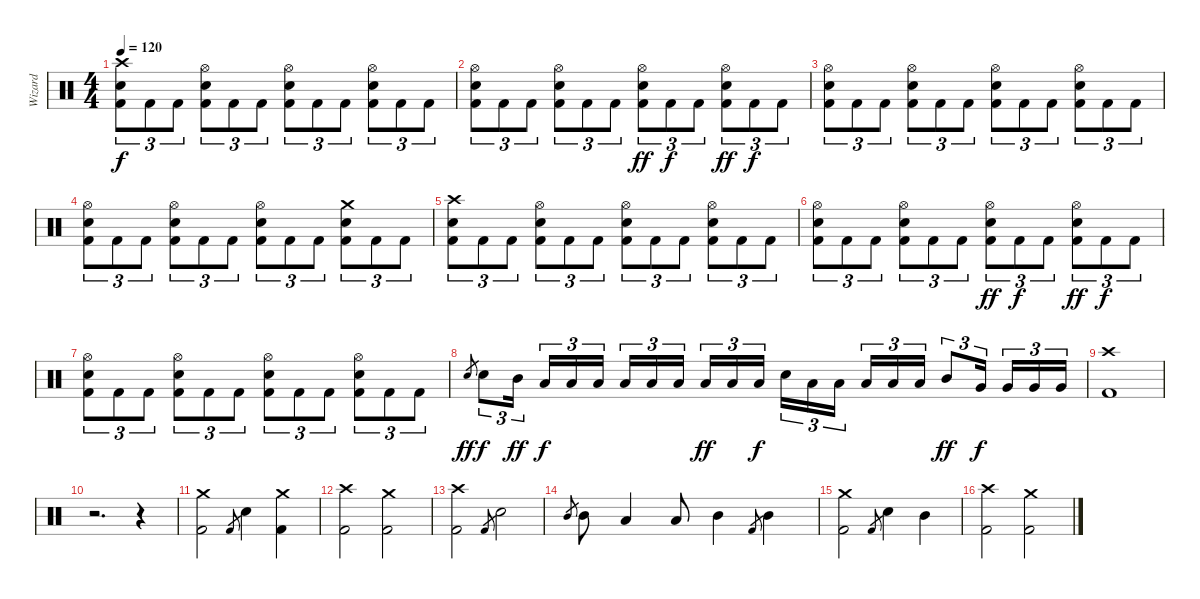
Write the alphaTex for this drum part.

\track ("Wizard" "Wizard") {instrument percussion}
\staff {score}
\articulation defaults
\ts (4 4)
\tempo 120
\clef neutral
\ks c
("Crash high (hit)" "Snare (hit) 2" "Kick (hit) 2").8{tu (3 2) dy f} "Kick (hit) 2".8{tu (3 2)} "Kick (hit) 2".8{tu (3 2)} ("Hi-Hat (open)" "Snare (hit) 2" "Kick (hit) 2").8{tu (3 2)} "Kick (hit) 2".8{tu (3 2)} "Kick (hit) 2".8{tu (3 2)} ("Hi-Hat (open)" "Snare (hit) 2" "Kick (hit) 2").8{tu (3 2)} "Kick (hit) 2".8{tu (3 2)} "Kick (hit) 2".8{tu (3 2)} ("Hi-Hat (open)" "Snare (hit) 2" "Kick (hit) 2").8{tu (3 2)} "Kick (hit) 2".8{tu (3 2)} "Kick (hit) 2".8{tu (3 2)} |
("Hi-Hat (open)" "Snare (hit) 2" "Kick (hit) 2").8{tu (3 2)} "Kick (hit) 2".8{tu (3 2)} "Kick (hit) 2".8{tu (3 2)} ("Hi-Hat (open)" "Snare (hit) 2" "Kick (hit) 2").8{tu (3 2)} "Kick (hit) 2".8{tu (3 2)} "Kick (hit) 2".8{tu (3 2)} ("Hi-Hat (open)" "Snare (hit) 2" "Kick (hit) 2").8{tu (3 2) dy ff} "Kick (hit) 2".8{tu (3 2) dy f} "Kick (hit) 2".8{tu (3 2)} ("Hi-Hat (open)" "Snare (hit) 2" "Kick (hit) 2").8{tu (3 2) dy ff} "Kick (hit) 2".8{tu (3 2) dy f} "Kick (hit) 2".8{tu (3 2)} |
("Hi-Hat (open)" "Snare (hit) 2" "Kick (hit) 2").8{tu (3 2)} "Kick (hit) 2".8{tu (3 2)} "Kick (hit) 2".8{tu (3 2)} ("Hi-Hat (open)" "Snare (hit) 2" "Kick (hit) 2").8{tu (3 2)} "Kick (hit) 2".8{tu (3 2)} "Kick (hit) 2".8{tu (3 2)} ("Hi-Hat (open)" "Snare (hit) 2" "Kick (hit) 2").8{tu (3 2)} "Kick (hit) 2".8{tu (3 2)} "Kick (hit) 2".8{tu (3 2)} ("Hi-Hat (open)" "Snare (hit) 2" "Kick (hit) 2").8{tu (3 2)} "Kick (hit) 2".8{tu (3 2)} "Kick (hit) 2".8{tu (3 2)} |
("Hi-Hat (open)" "Snare (hit) 2" "Kick (hit) 2").8{tu (3 2)} "Kick (hit) 2".8{tu (3 2)} "Kick (hit) 2".8{tu (3 2)} ("Hi-Hat (open)" "Snare (hit) 2" "Kick (hit) 2").8{tu (3 2)} "Kick (hit) 2".8{tu (3 2)} "Kick (hit) 2".8{tu (3 2)} ("Hi-Hat (open)" "Snare (hit) 2" "Kick (hit) 2").8{tu (3 2)} "Kick (hit) 2".8{tu (3 2)} "Kick (hit) 2".8{tu (3 2)} ("Crash medium (hit)" "Snare (hit) 2" "Kick (hit) 2").8{tu (3 2)} "Kick (hit) 2".8{tu (3 2)} "Kick (hit) 2".8{tu (3 2)} |
("Crash high (hit)" "Snare (hit) 2" "Kick (hit) 2").8{tu (3 2)} "Kick (hit) 2".8{tu (3 2)} "Kick (hit) 2".8{tu (3 2)} ("Hi-Hat (open)" "Snare (hit) 2" "Kick (hit) 2").8{tu (3 2)} "Kick (hit) 2".8{tu (3 2)} "Kick (hit) 2".8{tu (3 2)} ("Hi-Hat (open)" "Snare (hit) 2" "Kick (hit) 2").8{tu (3 2)} "Kick (hit) 2".8{tu (3 2)} "Kick (hit) 2".8{tu (3 2)} ("Hi-Hat (open)" "Snare (hit) 2" "Kick (hit) 2").8{tu (3 2)} "Kick (hit) 2".8{tu (3 2)} "Kick (hit) 2".8{tu (3 2)} |
("Hi-Hat (open)" "Snare (hit) 2" "Kick (hit) 2").8{tu (3 2)} "Kick (hit) 2".8{tu (3 2)} "Kick (hit) 2".8{tu (3 2)} ("Hi-Hat (open)" "Snare (hit) 2" "Kick (hit) 2").8{tu (3 2)} "Kick (hit) 2".8{tu (3 2)} "Kick (hit) 2".8{tu (3 2)} ("Hi-Hat (open)" "Snare (hit) 2" "Kick (hit) 2").8{tu (3 2) dy ff} "Kick (hit) 2".8{tu (3 2) dy f} "Kick (hit) 2".8{tu (3 2)} ("Hi-Hat (open)" "Snare (hit) 2" "Kick (hit) 2").8{tu (3 2) dy ff} "Kick (hit) 2".8{tu (3 2) dy f} "Kick (hit) 2".8{tu (3 2)} |
("Hi-Hat (open)" "Snare (hit) 2" "Kick (hit) 2").8{tu (3 2)} "Kick (hit) 2".8{tu (3 2)} "Kick (hit) 2".8{tu (3 2)} ("Hi-Hat (open)" "Snare (hit) 2" "Kick (hit) 2").8{tu (3 2)} "Kick (hit) 2".8{tu (3 2)} "Kick (hit) 2".8{tu (3 2)} ("Hi-Hat (open)" "Snare (hit) 2" "Kick (hit) 2").8{tu (3 2)} "Kick (hit) 2".8{tu (3 2)} "Kick (hit) 2".8{tu (3 2)} ("Hi-Hat (open)" "Snare (hit) 2" "Kick (hit) 2").8{tu (3 2)} "Kick (hit) 2".8{tu (3 2)} "Kick (hit) 2".8{tu (3 2)} |
"Snare (hit) 2".8{gr dy ff} "Snare (hit) 2".8{tu (3 2) dy f} "Mid Tom (hit)".16{tu (3 2) dy ff beam splitsecondary} "Low Tom (hit)".16{tu (3 2) dy f} "Low Tom (hit)".16{tu (3 2)} "Low Tom (hit)".16{tu (3 2)} "Low Tom (hit)".16{tu (3 2)} "Low Tom (hit)".16{tu (3 2)} "Low Tom (hit)".16{tu (3 2) beam splitsecondary} "Low Tom (hit)".16{tu (3 2) dy ff} "Low Tom (hit)".16{tu (3 2)} "Low Tom (hit)".16{tu (3 2) dy f} "Snare (hit) 2".16{tu (3 2)} "Low Tom (hit)".16{tu (3 2)} "Low Tom (hit)".16{tu (3 2) beam splitsecondary} "Low Tom (hit)".16{tu (3 2)} "Low Tom (hit)".16{tu (3 2)} "Low Tom (hit)".16{tu (3 2)} "Mid Tom (hit)".8{tu (3 2) dy ff} "Very Low Tom (hit)".16{tu (3 2) dy f beam splitsecondary} "Very Low Tom (hit)".16{tu (3 2)} "Very Low Tom (hit)".16{tu (3 2)} "Very Low Tom (hit)".16{tu (3 2)} |
("Crash high (hit)" "Kick (hit) 2").1 |
r.2{d} r.4 |
("Crash medium (hit)" "Kick (hit) 2").2 "Kick (hit) 2".8{gr} "Snare (hit) 2".4 ("Crash medium (hit)" "Kick (hit) 2").4 |
("Crash high (hit)" "Kick (hit) 2").2 ("Crash medium (hit)" "Kick (hit) 2").2 |
("Crash high (hit)" "Kick (hit) 2").2 "Kick (hit) 2".8{gr} "Snare (hit) 2".2 |
"Mid Tom (hit)".8{gr} "Mid Tom (hit)".8 "Low Tom (hit)".4 "Low Tom (hit)".8 "Mid Tom (hit)".4 "Kick (hit) 2".8{gr} "Mid Tom (hit)".4 |
("Crash medium (hit)" "Kick (hit) 2").2 "Kick (hit) 2".8{gr} "Snare (hit) 2".4 "Mid Tom (hit)".4 |
("Crash high (hit)" "Kick (hit) 2").2 ("Crash medium (hit)" "Kick (hit) 2").2
